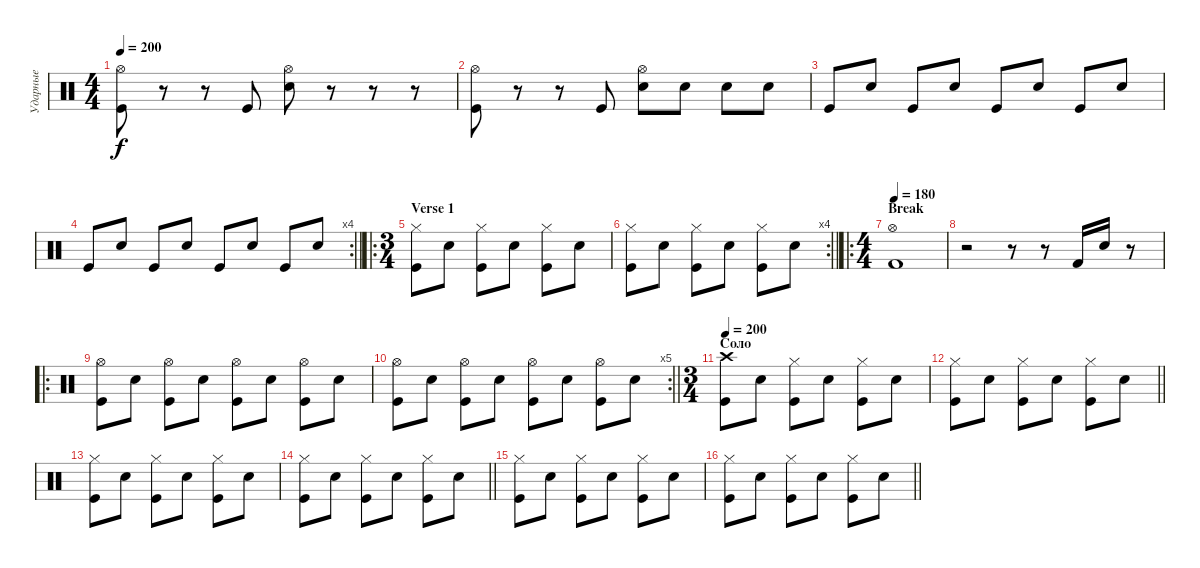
\track ("Ударные" "Ударные") {instrument percussion}
\staff {score}
\articulation defaults
\ts (4 4)
\tempo 200
\clef neutral
\ks c
("Hi-Hat (open)" "Kick (hit)").8{dy f} r.8 r.8 "Kick (hit)".8 ("Hi-Hat (open)" "Snare (hit) 2").8 r.8 r.8 r.8 |
("Hi-Hat (open)" "Kick (hit)").8 r.8 r.8 "Kick (hit)".8 ("Hi-Hat (open)" "Snare (hit) 2").8 "Snare (hit) 2".8 "Snare (hit) 2".8 "Snare (hit) 2".8 |
"Kick (hit)".8 "Snare (hit) 2".8 "Kick (hit)".8 "Snare (hit) 2".8 "Kick (hit)".8 "Snare (hit) 2".8 "Kick (hit)".8 "Snare (hit) 2".8 |
\rc 4
\barLineRight lightlight "Kick (hit)".8 "Snare (hit) 2".8 "Kick (hit)".8 "Snare (hit) 2".8 "Kick (hit)".8 "Snare (hit) 2".8 "Kick (hit)".8 "Snare (hit) 2".8
|
\ro
\ts (3 4)
\section ("" "Verse 1")
("Hi-Hat (closed)" "Kick (hit)").8 "Snare (hit) 2".8 ("Hi-Hat (closed)" "Kick (hit)").8 "Snare (hit) 2".8 ("Hi-Hat (closed)" "Kick (hit)").8 "Snare (hit) 2".8 |
\rc 4
\barLineRight lightlight
("Hi-Hat (closed)" "Kick (hit)").8 "Snare (hit) 2".8 ("Hi-Hat (closed)" "Kick (hit)").8 "Snare (hit) 2".8 ("Hi-Hat (closed)" "Kick (hit)").8 "Snare (hit) 2".8 |
\ro
\ts (4 4)
\section ("" "Break")
\tempo 180
("Hi-Hat (open)" "Kick (hit) 2").1 |
r.2 r.8 r.8 "Kick (hit) 2".16 "Snare (hit) 2".16 r.8 |
\ro
("Hi-Hat (open)" "Kick (hit)").8 "Snare (hit) 2".8 ("Hi-Hat (open)" "Kick (hit)").8 "Snare (hit) 2".8 ("Hi-Hat (open)" "Kick (hit)").8 "Snare (hit) 2".8 ("Hi-Hat (open)" "Kick (hit)").8 "Snare (hit) 2".8 |
\rc 5
\barLineRight lightlight
("Hi-Hat (open)" "Kick (hit)").8 "Snare (hit) 2".8 ("Hi-Hat (open)" "Kick (hit)").8 "Snare (hit) 2".8 ("Hi-Hat (open)" "Kick (hit)").8 "Snare (hit) 2".8 ("Hi-Hat (open)" "Kick (hit)").8 "Snare (hit) 2".8 |
\ts (3 4)
\section ("" "Соло")
\tempo 200
("Crash high (hit)" "Kick (hit)").8 "Snare (hit) 2".8 ("Hi-Hat (closed)" "Kick (hit)").8 "Snare (hit) 2".8 ("Hi-Hat (closed)" "Kick (hit)").8 "Snare (hit) 2".8 |
\barLineRight lightlight
("Hi-Hat (closed)" "Kick (hit)").8 "Snare (hit) 2".8 ("Hi-Hat (closed)" "Kick (hit)").8 "Snare (hit) 2".8 ("Hi-Hat (closed)" "Kick (hit)").8 "Snare (hit) 2".8 |
("Hi-Hat (closed)" "Kick (hit)").8 "Snare (hit) 2".8 ("Hi-Hat (closed)" "Kick (hit)").8 "Snare (hit) 2".8 ("Hi-Hat (closed)" "Kick (hit)").8 "Snare (hit) 2".8 |
\barLineRight lightlight
("Hi-Hat (closed)" "Kick (hit)").8 "Snare (hit) 2".8 ("Hi-Hat (closed)" "Kick (hit)").8 "Snare (hit) 2".8 ("Hi-Hat (closed)" "Kick (hit)").8 "Snare (hit) 2".8 |
("Hi-Hat (closed)" "Kick (hit)").8 "Snare (hit) 2".8 ("Hi-Hat (closed)" "Kick (hit)").8 "Snare (hit) 2".8 ("Hi-Hat (closed)" "Kick (hit)").8 "Snare (hit) 2".8 |
\barLineRight lightlight
("Hi-Hat (closed)" "Kick (hit)").8 "Snare (hit) 2".8 ("Hi-Hat (closed)" "Kick (hit)").8 "Snare (hit) 2".8 ("Hi-Hat (closed)" "Kick (hit)").8 "Snare (hit) 2".8
